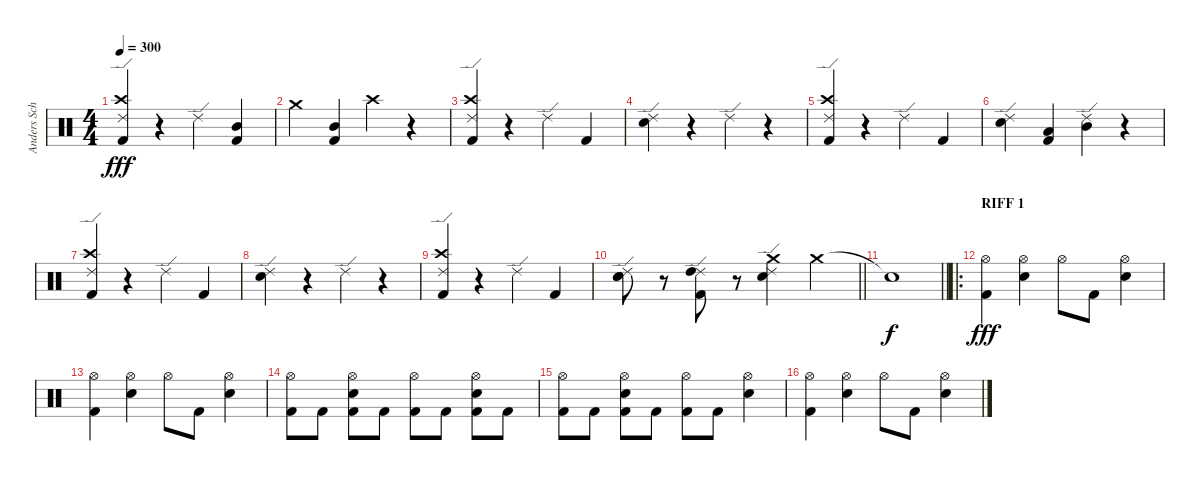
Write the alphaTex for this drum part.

\track ("Anders Schultz" "Anders Sch") {instrument percussion}
\staff {score}
\articulation defaults
\ts (4 4)
\tempo 300
\clef neutral
\ks c
("Ride (edge) 2" "Crash high (hit)" "Kick (hit) 2").4{dy fff} r.4 "Ride (edge) 2".4 ("Mid Tom (hit)" "Kick (hit) 2").4 |
"Crash medium (hit)".4 ("Mid Tom (hit)" "Kick (hit) 2").4 "Crash high (hit)".4 r.4 |
("Ride (edge) 2" "Crash high (hit)" "Kick (hit) 2").4 r.4 "Ride (edge) 2".4 "Kick (hit) 2".4 |
("Ride (edge) 2" "Snare (hit) 2").4 r.4 "Ride (edge) 2".4 r.4 |
("Ride (edge) 2" "Crash high (hit)" "Kick (hit) 2").4 r.4 "Ride (edge) 2".4 "Kick (hit) 2".4 |
("Ride (edge) 2" "Snare (hit) 2").4 ("Low Tom (hit)" "Kick (hit) 2").4 ("Ride (edge) 2" "Mid Tom (hit)").4 r.4 |
("Ride (edge) 2" "Crash high (hit)" "Kick (hit) 2").4 r.4 "Ride (edge) 2".4 "Kick (hit) 2".4 |
("Ride (edge) 2" "Snare (hit) 2").4 r.4 "Ride (edge) 2".4 r.4 |
("Ride (edge) 2" "Crash high (hit)" "Kick (hit) 2").4 r.4 "Ride (edge) 2".4 "Kick (hit) 2".4 |
\barLineRight lightlight
("Ride (edge) 2" "Snare (hit) 2" "Snare (hit) 2").8 r.8 ("Ride (edge) 2" "High Tom (hit)" "Kick (hit) 2").8 r.8 ("Ride (edge) 2" "Crash medium (hit)" "Snare (hit) 2").4 "Crash medium (hit)".4 |
\barLineRight lightlight "Snare (hit)"{t}.1{dy f}
|
\ro
\section ("" "RIFF 1")
("Hi-Hat (open)" "Kick (hit) 2").4{dy fff} ("Hi-Hat (open)" "Snare (hit) 2").4 "Hi-Hat (open)".8 "Kick (hit) 2".8 ("Hi-Hat (open)" "Snare (hit) 2").4 |
("Hi-Hat (open)" "Kick (hit) 2").4 ("Hi-Hat (open)" "Snare (hit) 2").4 "Hi-Hat (open)".8 "Kick (hit) 2".8 ("Hi-Hat (open)" "Snare (hit) 2").4 |
("Hi-Hat (open)" "Kick (hit) 2").8 "Kick (hit) 2".8 ("Hi-Hat (open)" "Snare (hit) 2" "Kick (hit) 2").8 "Kick (hit) 2".8 ("Hi-Hat (open)" "Kick (hit) 2").8 "Kick (hit) 2".8 ("Hi-Hat (open)" "Snare (hit) 2" "Kick (hit) 2").8 "Kick (hit) 2".8 |
("Hi-Hat (open)" "Kick (hit) 2").8 "Kick (hit) 2".8 ("Hi-Hat (open)" "Snare (hit) 2" "Kick (hit) 2").8 "Kick (hit) 2".8 ("Hi-Hat (open)" "Kick (hit) 2").8 "Kick (hit) 2".8 ("Hi-Hat (open)" "Snare (hit) 2").4 |
("Hi-Hat (open)" "Kick (hit) 2").4 ("Hi-Hat (open)" "Snare (hit) 2").4 "Hi-Hat (open)".8 "Kick (hit) 2".8 ("Hi-Hat (open)" "Snare (hit) 2").4
